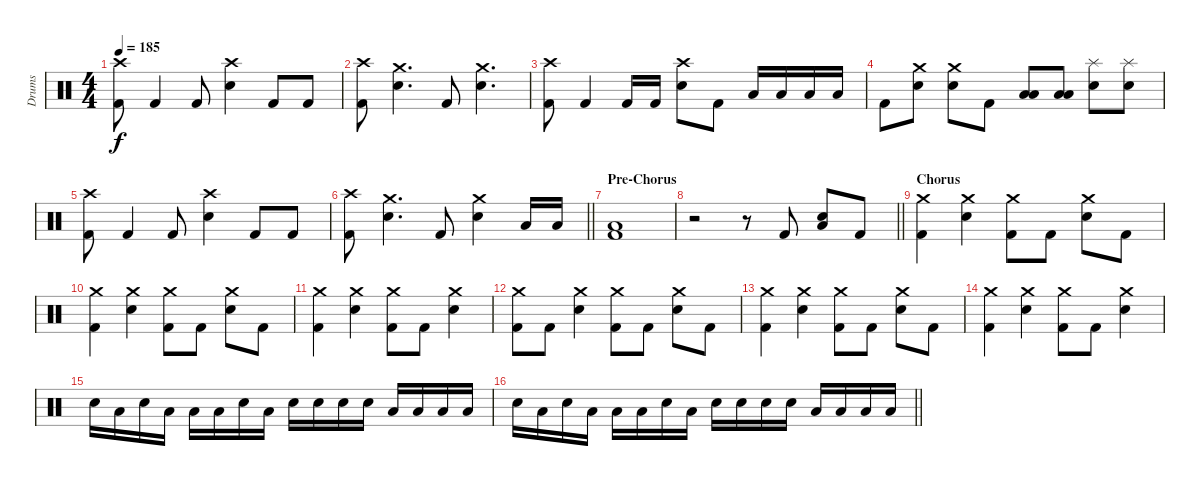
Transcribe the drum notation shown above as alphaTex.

\track ("Drums" "Drums") {instrument percussion}
\staff {score}
\articulation defaults
\ts (4 4)
\tempo 185
\clef neutral
\ks c
("Crash high (hit)" "Kick (hit) 2").8{dy f} "Kick (hit) 2".4 "Kick (hit) 2".8 ("Crash high (hit)" "Electric Snare (hit)").4 "Kick (hit) 2".8 "Kick (hit) 2".8 |
("Crash high (hit)" "Kick (hit) 2").8 ("Crash medium (hit)" "Electric Snare (hit)").4{d} "Kick (hit) 2".8 ("Crash medium (hit)" "Electric Snare (hit)").4{d} |
("Crash high (hit)" "Kick (hit) 2").8 "Kick (hit) 2".4 "Kick (hit) 2".16 "Kick (hit) 2".16 ("Crash high (hit)" "Electric Snare (hit)").8 "Kick (hit) 2".8 "Low Tom (hit)".16 "Low Tom (hit)".16 "Low Floor Tom (hit)".16 "Low Floor Tom (hit)".16 |
"Kick (hit) 2".8 ("Crash medium (hit)" "Electric Snare (hit)").8 ("Crash medium (hit)" "Electric Snare (hit)").8 "Kick (hit) 2".8 ("Low Tom (hit)" "Low Floor Tom (hit)").8 ("Low Tom (hit)" "Low Floor Tom (hit)").8 ("Splash (hit)" "Electric Snare (hit)").8 ("Splash (hit)" "Electric Snare (hit)").8 |
("Crash high (hit)" "Kick (hit) 2").8 "Kick (hit) 2".4 "Kick (hit) 2".8 ("Crash high (hit)" "Electric Snare (hit)").4 "Kick (hit) 2".8 "Kick (hit) 2".8 |
\barLineRight lightlight
("Crash high (hit)" "Kick (hit) 2").8 ("Crash medium (hit)" "Electric Snare (hit)").4{d} "Kick (hit) 2".8 ("Crash medium (hit)" "Electric Snare (hit)").4 "Low Floor Tom (hit)".16 "Low Floor Tom (hit)".16 |
\section ("" "Pre-Chorus")
("Low Floor Tom (hit)" "Kick (hit) 2").1 |
\barLineRight lightlight
r.2 r.8 "Kick (hit) 2".8 ("Electric Snare (hit)" "Low Floor Tom (hit)").8 "Kick (hit) 2".8 |
\section ("" "Chorus")
("Crash medium (hit)" "Kick (hit) 2").4 ("Crash medium (hit)" "Electric Snare (hit)").4 ("Crash medium (hit)" "Kick (hit) 2").8 "Kick (hit) 2".8 ("Crash medium (hit)" "Electric Snare (hit)").8 "Kick (hit) 2".8 |
("Crash medium (hit)" "Kick (hit) 2").4 ("Crash medium (hit)" "Electric Snare (hit)").4 ("Crash medium (hit)" "Kick (hit) 2").8 "Kick (hit) 2".8 ("Crash medium (hit)" "Electric Snare (hit)").8 "Kick (hit) 2".8 |
("Crash medium (hit)" "Kick (hit) 2").4 ("Crash medium (hit)" "Electric Snare (hit)").4 ("Crash medium (hit)" "Kick (hit) 2").8 "Kick (hit) 2".8 ("Crash medium (hit)" "Electric Snare (hit)").4 |
("Crash medium (hit)" "Kick (hit) 2").8 "Kick (hit) 2".8 ("Crash medium (hit)" "Electric Snare (hit)").4 ("Crash medium (hit)" "Kick (hit) 2").8 "Kick (hit) 2".8 ("Crash medium (hit)" "Electric Snare (hit)").8 "Kick (hit) 2".8 |
("Crash medium (hit)" "Kick (hit) 2").4 ("Crash medium (hit)" "Electric Snare (hit)").4 ("Crash medium (hit)" "Kick (hit) 2").8 "Kick (hit) 2".8 ("Crash medium (hit)" "Electric Snare (hit)").8 "Kick (hit) 2".8 |
("Crash medium (hit)" "Kick (hit) 2").4 ("Crash medium (hit)" "Electric Snare (hit)").4 ("Crash medium (hit)" "Kick (hit) 2").8 "Kick (hit) 2".8 ("Crash medium (hit)" "Electric Snare (hit)").4 |
"Electric Snare (hit)".16 "Low Tom (hit)".16 "Electric Snare (hit)".16 "Low Tom (hit)".16 "Low Tom (hit)".16 "Low Tom (hit)".16 "Electric Snare (hit)".16 "Low Tom (hit)".16 "Electric Snare (hit)".16 "Electric Snare (hit)".16 "Electric Snare (hit)".16 "Electric Snare (hit)".16 "Low Tom (hit)".16 "Low Tom (hit)".16 "Low Tom (hit)".16 "Low Tom (hit)".16 |
\barLineRight lightlight "Electric Snare (hit)".16 "Low Tom (hit)".16 "Electric Snare (hit)".16 "Low Tom (hit)".16 "Low Tom (hit)".16 "Low Tom (hit)".16 "Electric Snare (hit)".16 "Low Tom (hit)".16 "Electric Snare (hit)".16 "Electric Snare (hit)".16 "Electric Snare (hit)".16 "Electric Snare (hit)".16 "Low Floor Tom (hit)".16 "Low Floor Tom (hit)".16 "Low Floor Tom (hit)".16 "Low Floor Tom (hit)".16
